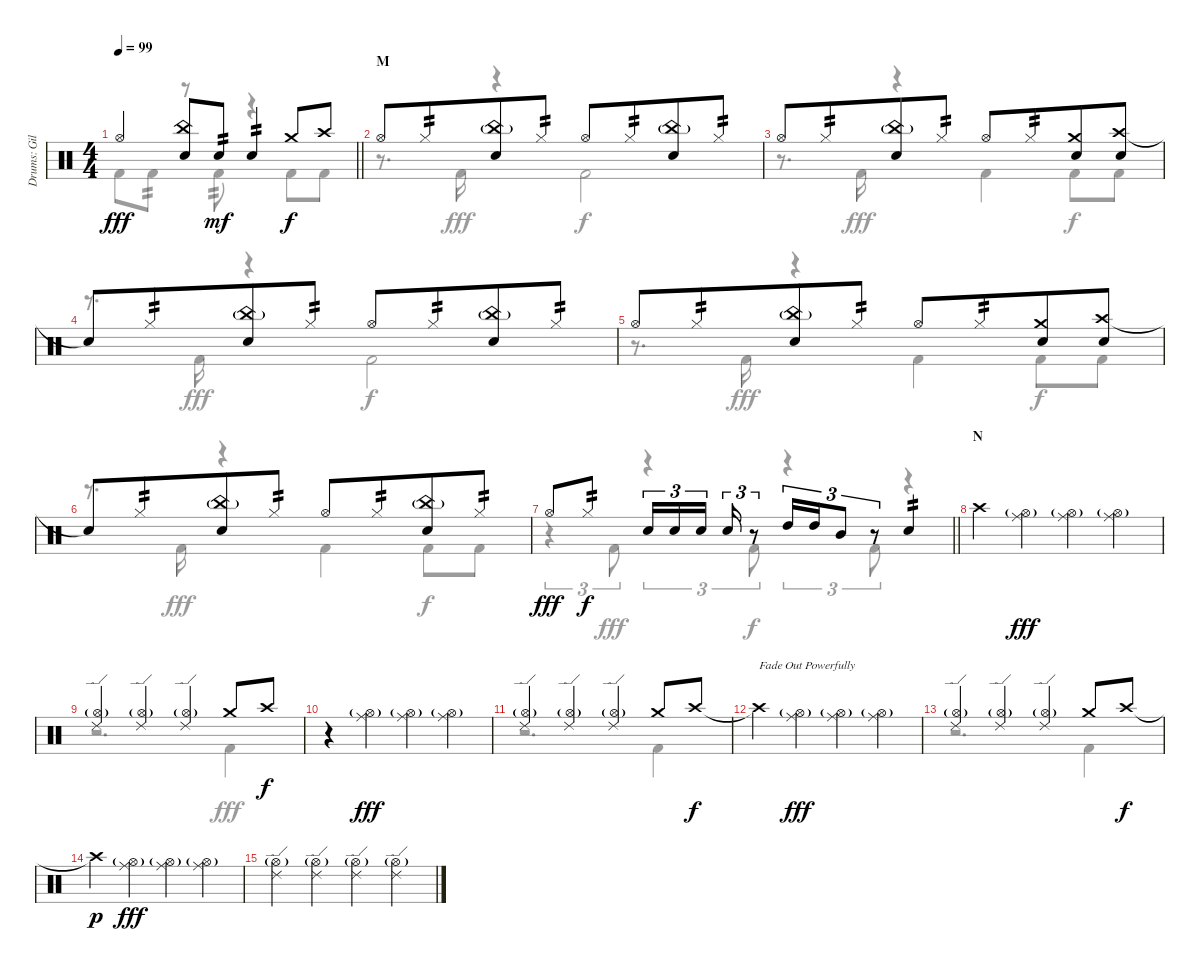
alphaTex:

\track ("Drums: Gil" "Drums: Gil") {instrument percussion}
\staff {score}
\articulation defaults
\voice
\ts (4 4)
\tempo 99
\clef neutral
\barLineRight lightlight
\ks c "Hi-Hat (open)".4{dy fff}
("China (hit)" "Snare (hit) 2").8 "Snare (hit) 2".8{tp 2 dy mf beam merge} "Snare (hit) 2".4{tp 2} "Crash medium (hit)".8{dy f} "Crash high (hit)".8 |
\section ("" "M")
"Hi-Hat (open)".8 "Hi-Hat (closed)".8{tp 2 beam merge} ("China (hit)"{g} "Snare (hit) 2").8 "Hi-Hat (closed)".8{tp 2} "Hi-Hat (open)".8 "Hi-Hat (closed)".8{tp 2 beam merge} ("China (hit)"{g} "Snare (hit) 2").8 "Hi-Hat (closed)".8{tp 2} |
"Hi-Hat (open)".8 "Hi-Hat (closed)".8{tp 2 beam merge} ("China (hit)"{g} "Snare (hit) 2").8 "Hi-Hat (closed)".8{tp 2} "Hi-Hat (open)".8 "Hi-Hat (closed)".8{tp 2 beam merge} ("Crash medium (hit)" "Snare (hit) 2").8 ("Crash high (hit)" "Snare (hit) 2").8 |
"Snare (hit)"{t}.8 "Hi-Hat (closed)".8{tp 2 beam merge} ("China (hit)"{g} "Snare (hit) 2").8 "Hi-Hat (closed)".8{tp 2} "Hi-Hat (open)".8 "Hi-Hat (closed)".8{tp 2 beam merge} ("China (hit)"{g} "Snare (hit) 2").8 "Hi-Hat (closed)".8{tp 2} |
"Hi-Hat (open)".8 "Hi-Hat (closed)".8{tp 2 beam merge} ("China (hit)"{g} "Snare (hit) 2").8 "Hi-Hat (closed)".8{tp 2} "Hi-Hat (open)".8 "Hi-Hat (closed)".8{tp 2 beam merge} ("Crash medium (hit)" "Snare (hit) 2").8 ("Crash high (hit)" "Snare (hit) 2").8 |
"Snare (hit)"{t}.8 "Hi-Hat (closed)".8{tp 2 beam merge} ("China (hit)"{g} "Snare (hit) 2").8 "Hi-Hat (closed)".8{tp 2} "Hi-Hat (open)".8 "Hi-Hat (closed)".8{tp 2 beam merge} ("China (hit)"{g} "Snare (hit) 2").8 "Hi-Hat (closed)".8{tp 2} |
\barLineRight lightlight "Hi-Hat (open)".8{dy fff} "Hi-Hat (closed)".8{tp 2 dy f} "Electric Snare (hit)".16{tu (3 2)} "Electric Snare (hit)".16{tu (3 2)} "Electric Snare (hit)".16{tu (3 2) beam splitsecondary} "Electric Snare (hit)".16{tu (3 2)}
r.8{tu (3 2)} "High Tom (hit)".16{tu (3 2)} "High Tom (hit)".16{tu (3 2)} "Mid Tom (hit)".8{tu (3 2)} r.8{tu (3 2)} "Electric Snare (hit)".4{tp 2} |
\section ("" "N")
"Crash high (hit)".4 ("Ride (middle)" "Hi-Hat (open)"{g}).4{dy fff} ("Ride (middle)" "Hi-Hat (open)"{g}).4 ("Ride (middle)" "Hi-Hat (open)"{g}).4 |
("Ride (edge) 2" "Hi-Hat (open)"{g}).4 ("Ride (edge) 2" "Hi-Hat (open)"{g}).4 ("Ride (edge) 2" "Hi-Hat (open)"{g}).4 "Crash medium (hit)".8 "Crash high (hit)".8{dy f} |
r.4 ("Ride (middle)" "Hi-Hat (open)"{g}).4{dy fff} ("Ride (middle)" "Hi-Hat (open)"{g}).4 ("Ride (middle)" "Hi-Hat (open)"{g}).4 |
("Ride (edge) 2" "Hi-Hat (open)"{g}).4 ("Ride (edge) 2" "Hi-Hat (open)"{g}).4 ("Ride (edge) 2" "Hi-Hat (open)"{g}).4 "Crash medium (hit)".8 "Crash high (hit)".8{dy f} |
"Crash high (hit)"{t}.4{txt "Fade Out Powerfully" volume 0} ("Ride (middle)" "Hi-Hat (open)"{g}).4{dy fff} ("Ride (middle)" "Hi-Hat (open)"{g}).4 ("Ride (middle)" "Hi-Hat (open)"{g}).4 |
("Ride (edge) 2" "Hi-Hat (open)"{g}).4 ("Ride (edge) 2" "Hi-Hat (open)"{g}).4 ("Ride (edge) 2" "Hi-Hat (open)"{g}).4 "Crash medium (hit)".8 "Crash high (hit)".8{dy f} |
"Crash high (hit)"{t}.4{dy p} ("Ride (middle)" "Hi-Hat (open)"{g}).4{dy fff} ("Ride (middle)" "Hi-Hat (open)"{g}).4 ("Ride (middle)" "Hi-Hat (open)"{g}).4 |
("Ride (edge) 2" "Hi-Hat (open)"{g}).4 ("Ride (edge) 2" "Hi-Hat (open)"{g}).4 ("Ride (edge) 2" "Hi-Hat (open)"{g}).4 ("Ride (edge) 2" "Hi-Hat (open)"{g}).4
\voice
\clef neutral
\ottava regular
\simile none
\barLineRight lightlight
\ks c "Kick (hit) 2".8{dy fff} "Kick (hit) 2".8{tp 2}
r.8 "Kick (hit) 2".8{tp 2} r.4 "Kick (hit) 2".8{dy f} "Kick (hit) 2".8 |
r.8{d} "Kick (hit) 2".16{dy fff} r.4 "Kick (hit) 2".2{dy f} |
r.8{d} "Kick (hit) 2".16{dy fff} r.4 "Kick (hit) 2".4 "Kick (hit) 2".8{dy f} "Kick (hit) 2".8 |
r.8{d} "Kick (hit) 2".16{dy fff} r.4 "Kick (hit) 2".2{dy f} |
r.8{d} "Kick (hit) 2".16{dy fff} r.4 "Kick (hit) 2".4 "Kick (hit) 2".8{dy f} "Kick (hit) 2".8 |
r.8{d} "Kick (hit) 2".16{dy fff} r.4 "Kick (hit) 2".4 "Kick (hit) 2".8{dy f} "Kick (hit) 2".8 |
\barLineRight lightlight
r.4{tu (3 2)} "Kick (hit) 2".8{tu (3 2) dy fff} r.4{tu (3 2)} "Kick (hit) 2".8{tu (3 2) dy f} r.4{tu (3 2)} "Kick (hit) 2".8{tu (3 2)} r.4 |
|
r.2{d} "Kick (hit) 2".4{dy fff} |
|
r.2{d} "Kick (hit) 2".4 |
|
r.2{d} "Kick (hit) 2".4 |
|
